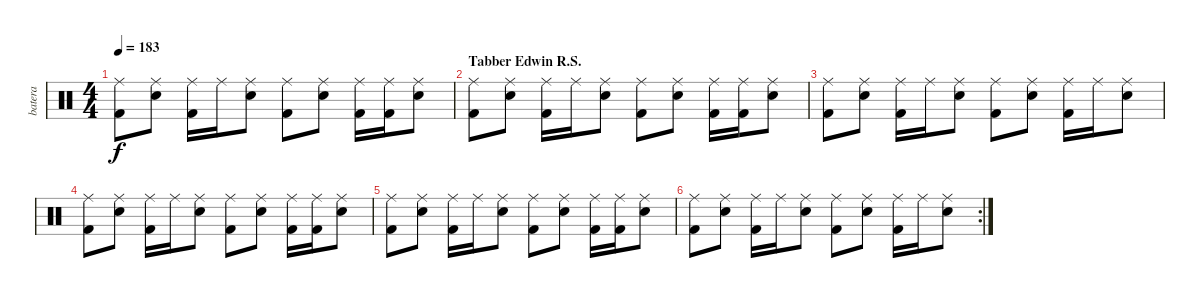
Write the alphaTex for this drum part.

\track ("batera" "batera") {instrument percussion}
\staff {score}
\articulation defaults
\ts (4 4)
\tempo 183
\clef neutral
\ks c
("Ride (middle)" "Kick (hit) 2").8{dy f} ("Ride (middle)" "Snare (hit) 2").8 ("Ride (middle)" "Kick (hit) 2").16 "Ride (middle)".16 ("Ride (middle)" "Snare (hit) 2").8 ("Ride (middle)" "Kick (hit) 2").8 ("Ride (middle)" "Snare (hit) 2").8 ("Ride (middle)" "Kick (hit) 2").16 ("Ride (middle)" "Kick (hit) 2").16 ("Ride (middle)" "Snare (hit) 2").8 |
\section ("" "Tabber Edwin R.S.")
("Ride (middle)" "Kick (hit) 2").8 ("Ride (middle)" "Snare (hit) 2").8 ("Ride (middle)" "Kick (hit) 2").16 "Ride (middle)".16 ("Ride (middle)" "Snare (hit) 2").8 ("Ride (middle)" "Kick (hit) 2").8 ("Ride (middle)" "Snare (hit) 2").8 ("Ride (middle)" "Kick (hit) 2").16 ("Ride (middle)" "Kick (hit) 2").16 ("Ride (middle)" "Snare (hit) 2").8 |
("Ride (middle)" "Kick (hit) 2").8 ("Ride (middle)" "Snare (hit) 2").8 ("Ride (middle)" "Kick (hit) 2").16 "Ride (middle)".16 ("Ride (middle)" "Snare (hit) 2").8 ("Ride (middle)" "Kick (hit) 2").8 ("Ride (middle)" "Snare (hit) 2").8 ("Ride (middle)" "Kick (hit) 2").16 "Ride (middle)".16 ("Ride (middle)" "Snare (hit) 2").8 |
("Ride (middle)" "Kick (hit) 2").8 ("Ride (middle)" "Snare (hit) 2").8 ("Ride (middle)" "Kick (hit) 2").16 "Ride (middle)".16 ("Ride (middle)" "Snare (hit) 2").8 ("Ride (middle)" "Kick (hit) 2").8 ("Ride (middle)" "Snare (hit) 2").8 ("Ride (middle)" "Kick (hit) 2").16 ("Ride (middle)" "Kick (hit) 2").16 ("Ride (middle)" "Snare (hit) 2").8 |
("Ride (middle)" "Kick (hit) 2").8 ("Ride (middle)" "Snare (hit) 2").8 ("Ride (middle)" "Kick (hit) 2").16 "Ride (middle)".16 ("Ride (middle)" "Snare (hit) 2").8 ("Ride (middle)" "Kick (hit) 2").8 ("Ride (middle)" "Snare (hit) 2").8 ("Ride (middle)" "Kick (hit) 2").16 ("Ride (middle)" "Kick (hit) 2").16 ("Ride (middle)" "Snare (hit) 2").8 |
\rc 2
("Ride (middle)" "Kick (hit) 2").8 ("Ride (middle)" "Snare (hit) 2").8 ("Ride (middle)" "Kick (hit) 2").16 "Ride (middle)".16 ("Ride (middle)" "Snare (hit) 2").8 ("Ride (middle)" "Kick (hit) 2").8 ("Ride (middle)" "Snare (hit) 2").8 ("Ride (middle)" "Kick (hit) 2").16 "Ride (middle)".16 ("Ride (middle)" "Snare (hit) 2").8
